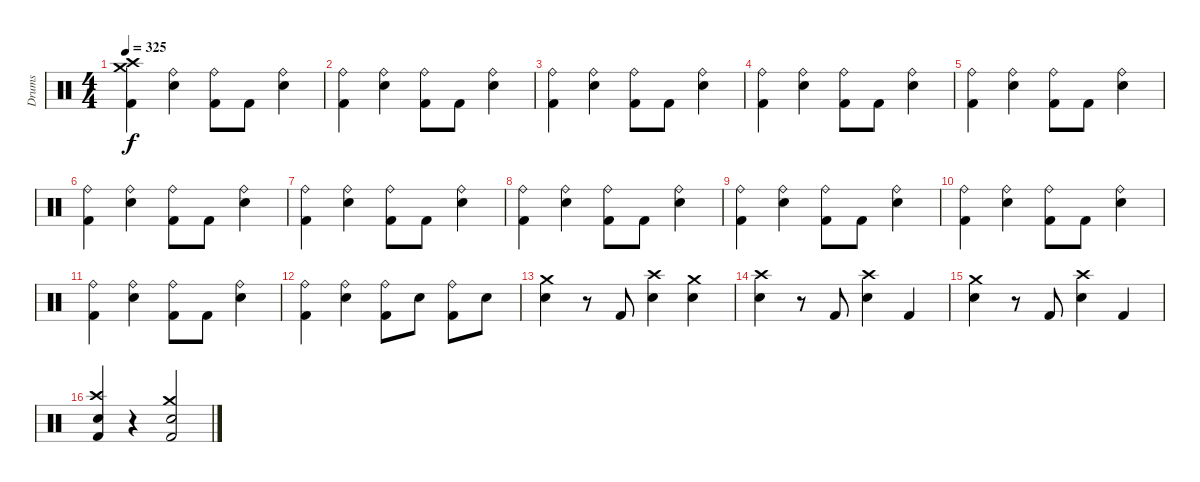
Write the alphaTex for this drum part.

\track ("Drums" "Drums") {instrument percussion}
\staff {score}
\articulation defaults
\ts (4 4)
\tempo 325
\clef neutral
\ks c
("Kick (hit) 2" "Crash high (hit)" "Crash medium (hit)").4{dy f} ("Electric Snare (hit)" "Ride (bell)").4 ("Kick (hit) 2" "Ride (bell)").8 "Kick (hit) 2".8 ("Electric Snare (hit)" "Ride (bell)").4 |
("Kick (hit) 2" "Ride (bell)").4 ("Electric Snare (hit)" "Ride (bell)").4 ("Kick (hit) 2" "Ride (bell)").8 "Kick (hit) 2".8 ("Electric Snare (hit)" "Ride (bell)").4 |
("Kick (hit) 2" "Ride (bell)").4 ("Electric Snare (hit)" "Ride (bell)").4 ("Kick (hit) 2" "Ride (bell)").8 "Kick (hit) 2".8 ("Electric Snare (hit)" "Ride (bell)").4 |
("Kick (hit) 2" "Ride (bell)").4 ("Electric Snare (hit)" "Ride (bell)").4 ("Kick (hit) 2" "Ride (bell)").8 "Kick (hit) 2".8 ("Electric Snare (hit)" "Ride (bell)").4 |
("Ride (bell)" "Kick (hit) 2").4 ("Electric Snare (hit)" "Ride (bell)").4 ("Kick (hit) 2" "Ride (bell)").8 "Kick (hit) 2".8 ("Electric Snare (hit)" "Ride (bell)").4 |
("Kick (hit) 2" "Ride (bell)").4 ("Electric Snare (hit)" "Ride (bell)").4 ("Kick (hit) 2" "Ride (bell)").8 "Kick (hit) 2".8 ("Electric Snare (hit)" "Ride (bell)").4 |
("Kick (hit) 2" "Ride (bell)").4 ("Electric Snare (hit)" "Ride (bell)").4 ("Kick (hit) 2" "Ride (bell)").8 "Kick (hit) 2".8 ("Electric Snare (hit)" "Ride (bell)").4 |
("Kick (hit) 2" "Ride (bell)").4 ("Electric Snare (hit)" "Ride (bell)").4 ("Kick (hit) 2" "Ride (bell)").8 "Kick (hit) 2".8 ("Electric Snare (hit)" "Ride (bell)").4 |
("Ride (bell)" "Kick (hit) 2").4 ("Electric Snare (hit)" "Ride (bell)").4 ("Kick (hit) 2" "Ride (bell)").8 "Kick (hit) 2".8 ("Electric Snare (hit)" "Ride (bell)").4 |
("Kick (hit) 2" "Ride (bell)").4 ("Electric Snare (hit)" "Ride (bell)").4 ("Kick (hit) 2" "Ride (bell)").8 "Kick (hit) 2".8 ("Electric Snare (hit)" "Ride (bell)").4 |
("Kick (hit) 2" "Ride (bell)").4 ("Electric Snare (hit)" "Ride (bell)").4 ("Kick (hit) 2" "Ride (bell)").8 "Kick (hit) 2".8 ("Electric Snare (hit)" "Ride (bell)").4 |
("Ride (bell)" "Kick (hit) 2").4 ("Electric Snare (hit)" "Ride (bell)").4 ("Kick (hit) 2" "Ride (bell)").8 "Electric Snare (hit)".8 ("Kick (hit) 2" "Ride (bell)").8 "Electric Snare (hit)".8 |
("Electric Snare (hit)" "Crash medium (hit)").4 r.8 "Kick (hit) 2".8 ("Crash high (hit)" "Electric Snare (hit)").4 ("Crash medium (hit)" "Electric Snare (hit)").4 |
("Electric Snare (hit)" "Crash high (hit)").4 r.8 "Kick (hit) 2".8 ("Crash high (hit)" "Electric Snare (hit)").4 "Kick (hit) 2".4 |
("Electric Snare (hit)" "Crash medium (hit)").4 r.8 "Kick (hit) 2".8 ("Crash high (hit)" "Electric Snare (hit)").4 "Kick (hit) 2".4 |
("Electric Snare (hit)" "Kick (hit) 2" "Crash high (hit)").4 r.4 ("Electric Snare (hit)" "Kick (hit) 2" "Crash medium (hit)").2
